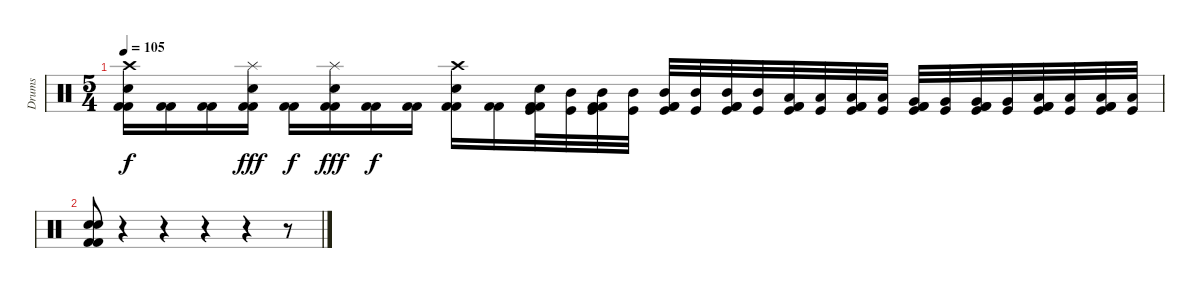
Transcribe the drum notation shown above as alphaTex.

\track ("Drums" "Drums") {instrument percussion}
\staff {score}
\articulation defaults
\ts (5 4)
\tempo 105
\clef neutral
\ks c
("Crash high (hit)" "Electric Snare (hit)" "Kick (hit) 2" "Kick (hit) 2").16{dy f} ("Kick (hit) 2" "Kick (hit) 2").16 ("Kick (hit) 2" "Kick (hit) 2").16 ("Splash (hit)" "Electric Snare (hit)" "Kick (hit) 2" "Kick (hit) 2").16{dy fff} ("Kick (hit) 2" "Kick (hit) 2").16{dy f} ("Splash (hit)" "Electric Snare (hit)" "Kick (hit) 2" "Kick (hit) 2").16{dy fff} ("Kick (hit) 2" "Kick (hit) 2").16{dy f} ("Kick (hit) 2" "Kick (hit) 2").16 ("Crash high (hit)" "Electric Snare (hit)" "Kick (hit) 2" "Kick (hit) 2").16 ("Kick (hit) 2" "Kick (hit) 2").16 ("Electric Snare (hit)" "Kick (hit)" "Kick (hit) 2" "Kick (hit) 2").32 ("Mid Tom (hit)" "Kick (hit)").32 ("Mid Tom (hit)" "Kick (hit)" "Kick (hit) 2" "Kick (hit) 2").32 ("Mid Tom (hit)" "Kick (hit)").32 ("Mid Tom (hit)" "Kick (hit)" "Kick (hit) 2" "Kick (hit) 2").32 ("Mid Tom (hit)" "Kick (hit)").32 ("Mid Tom (hit)" "Kick (hit)" "Kick (hit) 2" "Kick (hit) 2").32 ("Mid Tom (hit)" "Kick (hit)").32 ("Low Tom (hit)" "Kick (hit)" "Kick (hit) 2" "Kick (hit) 2").32 ("Low Tom (hit)" "Kick (hit)").32 ("Low Tom (hit)" "Kick (hit)" "Kick (hit) 2" "Kick (hit) 2").32 ("Low Tom (hit)" "Kick (hit)").32 ("Very Low Tom (hit)" "Kick (hit)" "Kick (hit) 2" "Kick (hit) 2").32 ("Very Low Tom (hit)" "Kick (hit)").32 ("Very Low Tom (hit)" "Kick (hit)" "Kick (hit) 2" "Kick (hit) 2").32 ("Very Low Tom (hit)" "Kick (hit)").32 ("Low Floor Tom (hit)" "Kick (hit)" "Kick (hit) 2" "Kick (hit) 2").32 ("Low Floor Tom (hit)" "Kick (hit)").32 ("Low Floor Tom (hit)" "Kick (hit)" "Kick (hit) 2" "Kick (hit) 2").32 ("Low Floor Tom (hit)" "Kick (hit)").32 |
("Electric Snare (hit)" "Electric Snare (hit)" "Kick (hit) 2" "Kick (hit) 2").8 r.4 r.4 r.4 r.4 r.8
